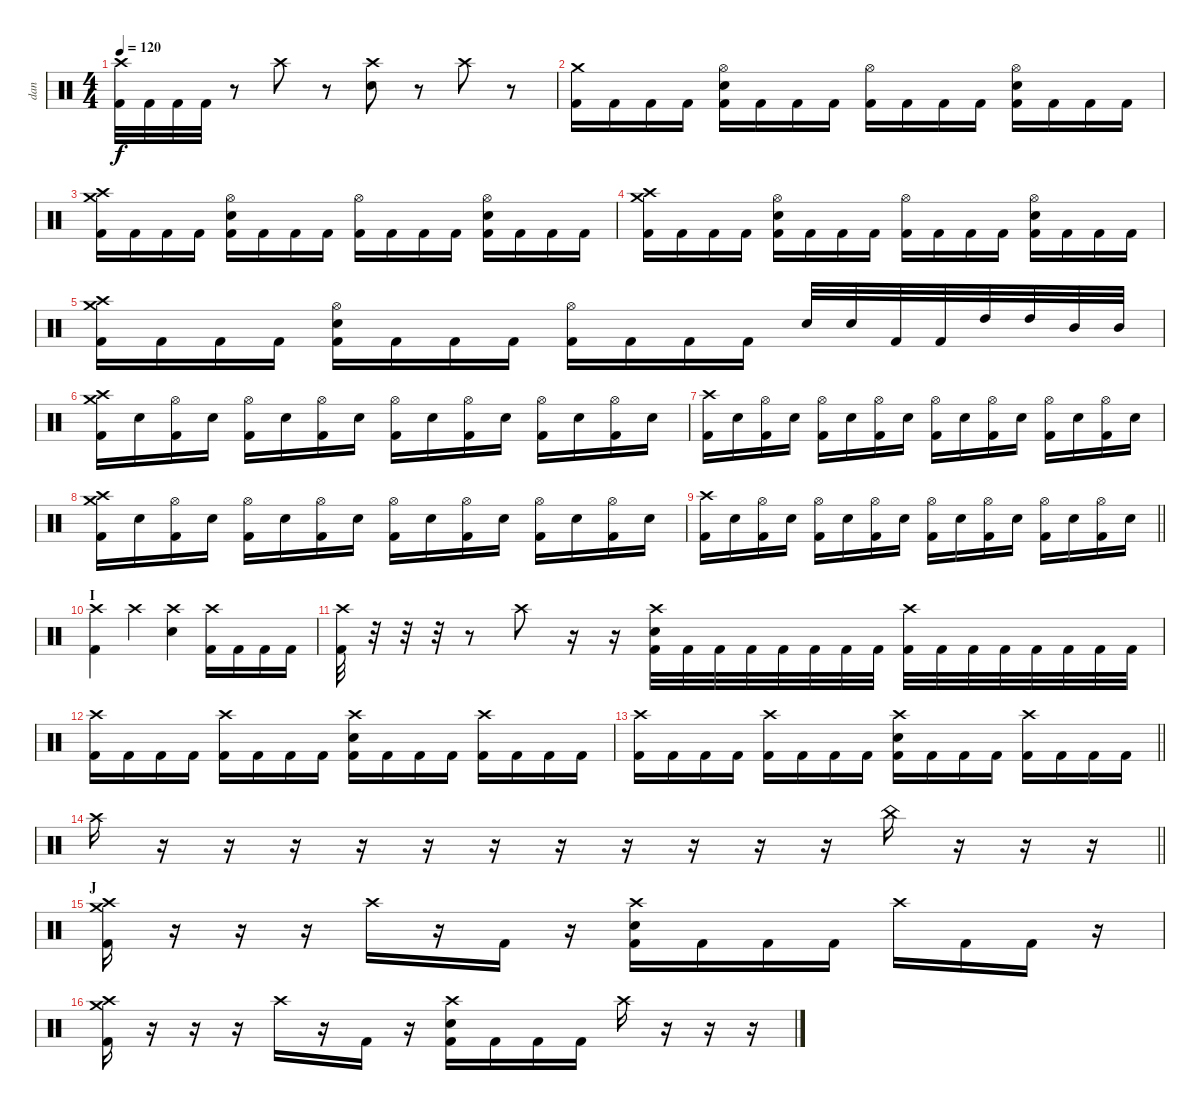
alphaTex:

\track ("dan" "dan") {instrument percussion}
\staff {score}
\articulation defaults
\ts (4 4)
\tempo 120
\clef neutral
\ks c
("Crash high (hit)" "Kick (hit) 2").32{dy f} "Kick (hit) 2".32 "Kick (hit) 2".32 "Kick (hit) 2".32 r.8 "Crash high (hit)".8 r.8 ("Crash high (hit)" "Electric Snare (hit)").8 r.8 "Crash high (hit)".8 r.8 |
("Crash medium (hit)" "Kick (hit) 2").16 "Kick (hit) 2".16 "Kick (hit) 2".16 "Kick (hit) 2".16 ("Hi-Hat (open)" "Electric Snare (hit)" "Kick (hit) 2").16 "Kick (hit) 2".16 "Kick (hit) 2".16 "Kick (hit) 2".16 ("Hi-Hat (open)" "Kick (hit) 2").16 "Kick (hit) 2".16 "Kick (hit) 2".16 "Kick (hit) 2".16 ("Hi-Hat (open)" "Electric Snare (hit)" "Kick (hit) 2").16 "Kick (hit) 2".16 "Kick (hit) 2".16 "Kick (hit) 2".16 |
("Crash high (hit)" "Crash medium (hit)" "Kick (hit) 2").16 "Kick (hit) 2".16 "Kick (hit) 2".16 "Kick (hit) 2".16 ("Hi-Hat (open)" "Electric Snare (hit)" "Kick (hit) 2").16 "Kick (hit) 2".16 "Kick (hit) 2".16 "Kick (hit) 2".16 ("Hi-Hat (open)" "Kick (hit) 2").16 "Kick (hit) 2".16 "Kick (hit) 2".16 "Kick (hit) 2".16 ("Hi-Hat (open)" "Electric Snare (hit)" "Kick (hit) 2").16 "Kick (hit) 2".16 "Kick (hit) 2".16 "Kick (hit) 2".16 |
("Crash high (hit)" "Crash medium (hit)" "Kick (hit) 2").16 "Kick (hit) 2".16 "Kick (hit) 2".16 "Kick (hit) 2".16 ("Hi-Hat (open)" "Electric Snare (hit)" "Kick (hit) 2").16 "Kick (hit) 2".16 "Kick (hit) 2".16 "Kick (hit) 2".16 ("Hi-Hat (open)" "Kick (hit) 2").16 "Kick (hit) 2".16 "Kick (hit) 2".16 "Kick (hit) 2".16 ("Hi-Hat (open)" "Electric Snare (hit)" "Kick (hit) 2").16 "Kick (hit) 2".16 "Kick (hit) 2".16 "Kick (hit) 2".16 |
("Crash high (hit)" "Crash medium (hit)" "Kick (hit) 2").16 "Kick (hit) 2".16 "Kick (hit) 2".16 "Kick (hit) 2".16 ("Hi-Hat (open)" "Electric Snare (hit)" "Kick (hit) 2").16 "Kick (hit) 2".16 "Kick (hit) 2".16 "Kick (hit) 2".16 ("Hi-Hat (open)" "Kick (hit) 2").16 "Kick (hit) 2".16 "Kick (hit) 2".16 "Kick (hit) 2".16 "Electric Snare (hit)".32 "Electric Snare (hit)".32 "Kick (hit) 2".32 "Kick (hit) 2".32 "High Tom (hit)".32 "High Tom (hit)".32 "Mid Tom (hit)".32 "Mid Tom (hit)".32 |
("Crash high (hit)" "Crash medium (hit)" "Kick (hit) 2").16 "Electric Snare (hit)".16 ("Hi-Hat (open)" "Kick (hit) 2").16 "Electric Snare (hit)".16 ("Hi-Hat (open)" "Kick (hit) 2").16 "Electric Snare (hit)".16 ("Hi-Hat (open)" "Kick (hit) 2").16 "Electric Snare (hit)".16 ("Hi-Hat (open)" "Kick (hit) 2").16 "Electric Snare (hit)".16 ("Hi-Hat (open)" "Kick (hit) 2").16 "Electric Snare (hit)".16 ("Hi-Hat (open)" "Kick (hit) 2").16 "Electric Snare (hit)".16 ("Hi-Hat (open)" "Kick (hit) 2").16 "Electric Snare (hit)".16 |
("Crash high (hit)" "Kick (hit) 2").16 "Electric Snare (hit)".16 ("Hi-Hat (open)" "Kick (hit) 2").16 "Electric Snare (hit)".16 ("Hi-Hat (open)" "Kick (hit) 2").16 "Electric Snare (hit)".16 ("Hi-Hat (open)" "Kick (hit) 2").16 "Electric Snare (hit)".16 ("Hi-Hat (open)" "Kick (hit) 2").16 "Electric Snare (hit)".16 ("Hi-Hat (open)" "Kick (hit) 2").16 "Electric Snare (hit)".16 ("Hi-Hat (open)" "Kick (hit) 2").16 "Electric Snare (hit)".16 ("Hi-Hat (open)" "Kick (hit) 2").16 "Electric Snare (hit)".16 |
("Crash high (hit)" "Crash medium (hit)" "Kick (hit) 2").16 "Electric Snare (hit)".16 ("Hi-Hat (open)" "Kick (hit) 2").16 "Electric Snare (hit)".16 ("Hi-Hat (open)" "Kick (hit) 2").16 "Electric Snare (hit)".16 ("Hi-Hat (open)" "Kick (hit) 2").16 "Electric Snare (hit)".16 ("Hi-Hat (open)" "Kick (hit) 2").16 "Electric Snare (hit)".16 ("Hi-Hat (open)" "Kick (hit) 2").16 "Electric Snare (hit)".16 ("Hi-Hat (open)" "Kick (hit) 2").16 "Electric Snare (hit)".16 ("Hi-Hat (open)" "Kick (hit) 2").16 "Electric Snare (hit)".16 |
\barLineRight lightlight
("Crash high (hit)" "Kick (hit) 2").16 "Electric Snare (hit)".16 ("Hi-Hat (open)" "Kick (hit) 2").16 "Electric Snare (hit)".16 ("Hi-Hat (open)" "Kick (hit) 2").16 "Electric Snare (hit)".16 ("Hi-Hat (open)" "Kick (hit) 2").16 "Electric Snare (hit)".16 ("Hi-Hat (open)" "Kick (hit) 2").16 "Electric Snare (hit)".16 ("Hi-Hat (open)" "Kick (hit) 2").16 "Electric Snare (hit)".16 ("Hi-Hat (open)" "Kick (hit) 2").16 "Electric Snare (hit)".16 ("Hi-Hat (open)" "Kick (hit) 2").16 "Electric Snare (hit)".16 |
\section ("" "I")
("Crash high (hit)" "Kick (hit) 2").4 "Crash high (hit)".4 ("Crash high (hit)" "Electric Snare (hit)").4 ("Crash high (hit)" "Kick (hit) 2").16 "Kick (hit) 2".16 "Kick (hit) 2".16 "Kick (hit) 2".16 |
("Crash high (hit)" "Kick (hit) 2").32 r.32 r.32 r.32 r.8 "Crash high (hit)".8 r.16 r.16 ("Crash high (hit)" "Electric Snare (hit)" "Kick (hit) 2").32 "Kick (hit) 2".32 "Kick (hit) 2".32 "Kick (hit) 2".32 "Kick (hit) 2".32 "Kick (hit) 2".32 "Kick (hit) 2".32 "Kick (hit) 2".32 ("Crash high (hit)" "Kick (hit) 2").32 "Kick (hit) 2".32 "Kick (hit) 2".32 "Kick (hit) 2".32 "Kick (hit) 2".32 "Kick (hit) 2".32 "Kick (hit) 2".32 "Kick (hit) 2".32 |
("Crash high (hit)" "Kick (hit) 2").16 "Kick (hit) 2".16 "Kick (hit) 2".16 "Kick (hit) 2".16 ("Crash high (hit)" "Kick (hit) 2").16 "Kick (hit) 2".16 "Kick (hit) 2".16 "Kick (hit) 2".16 ("Crash high (hit)" "Electric Snare (hit)" "Kick (hit) 2").16 "Kick (hit) 2".16 "Kick (hit) 2".16 "Kick (hit) 2".16 ("Crash high (hit)" "Kick (hit) 2").16 "Kick (hit) 2".16 "Kick (hit) 2".16 "Kick (hit) 2".16 |
\barLineRight lightlight
("Crash high (hit)" "Kick (hit) 2").16 "Kick (hit) 2".16 "Kick (hit) 2".16 "Kick (hit) 2".16 ("Crash high (hit)" "Kick (hit) 2").16 "Kick (hit) 2".16 "Kick (hit) 2".16 "Kick (hit) 2".16 ("Crash high (hit)" "Electric Snare (hit)" "Kick (hit) 2").16 "Kick (hit) 2".16 "Kick (hit) 2".16 "Kick (hit) 2".16 ("Crash high (hit)" "Kick (hit) 2").16 "Kick (hit) 2".16 "Kick (hit) 2".16 "Kick (hit) 2".16 |
\barLineRight lightlight "Crash high (hit)".16
r.16 r.16 r.16 r.16 r.16 r.16 r.16 r.16 r.16 r.16 r.16 "China (hit)".16 r.16 r.16 r.16 |
\section ("" "J")
("Crash high (hit)" "Crash medium (hit)" "Kick (hit) 2").16 r.16 r.16 r.16 "Crash high (hit)".16 r.16 "Kick (hit) 2".16 r.16 ("Crash high (hit)" "Electric Snare (hit)" "Kick (hit) 2").16 "Kick (hit) 2".16 "Kick (hit) 2".16 "Kick (hit) 2".16 "Crash high (hit)".16 "Kick (hit) 2".16 "Kick (hit) 2".16 r.16 |
("Crash high (hit)" "Crash medium (hit)" "Kick (hit) 2").16 r.16 r.16 r.16 "Crash high (hit)".16 r.16 "Kick (hit) 2".16 r.16 ("Crash high (hit)" "Electric Snare (hit)" "Kick (hit) 2").16 "Kick (hit) 2".16 "Kick (hit) 2".16 "Kick (hit) 2".16 "Crash high (hit)".16 r.16 r.16 r.16
